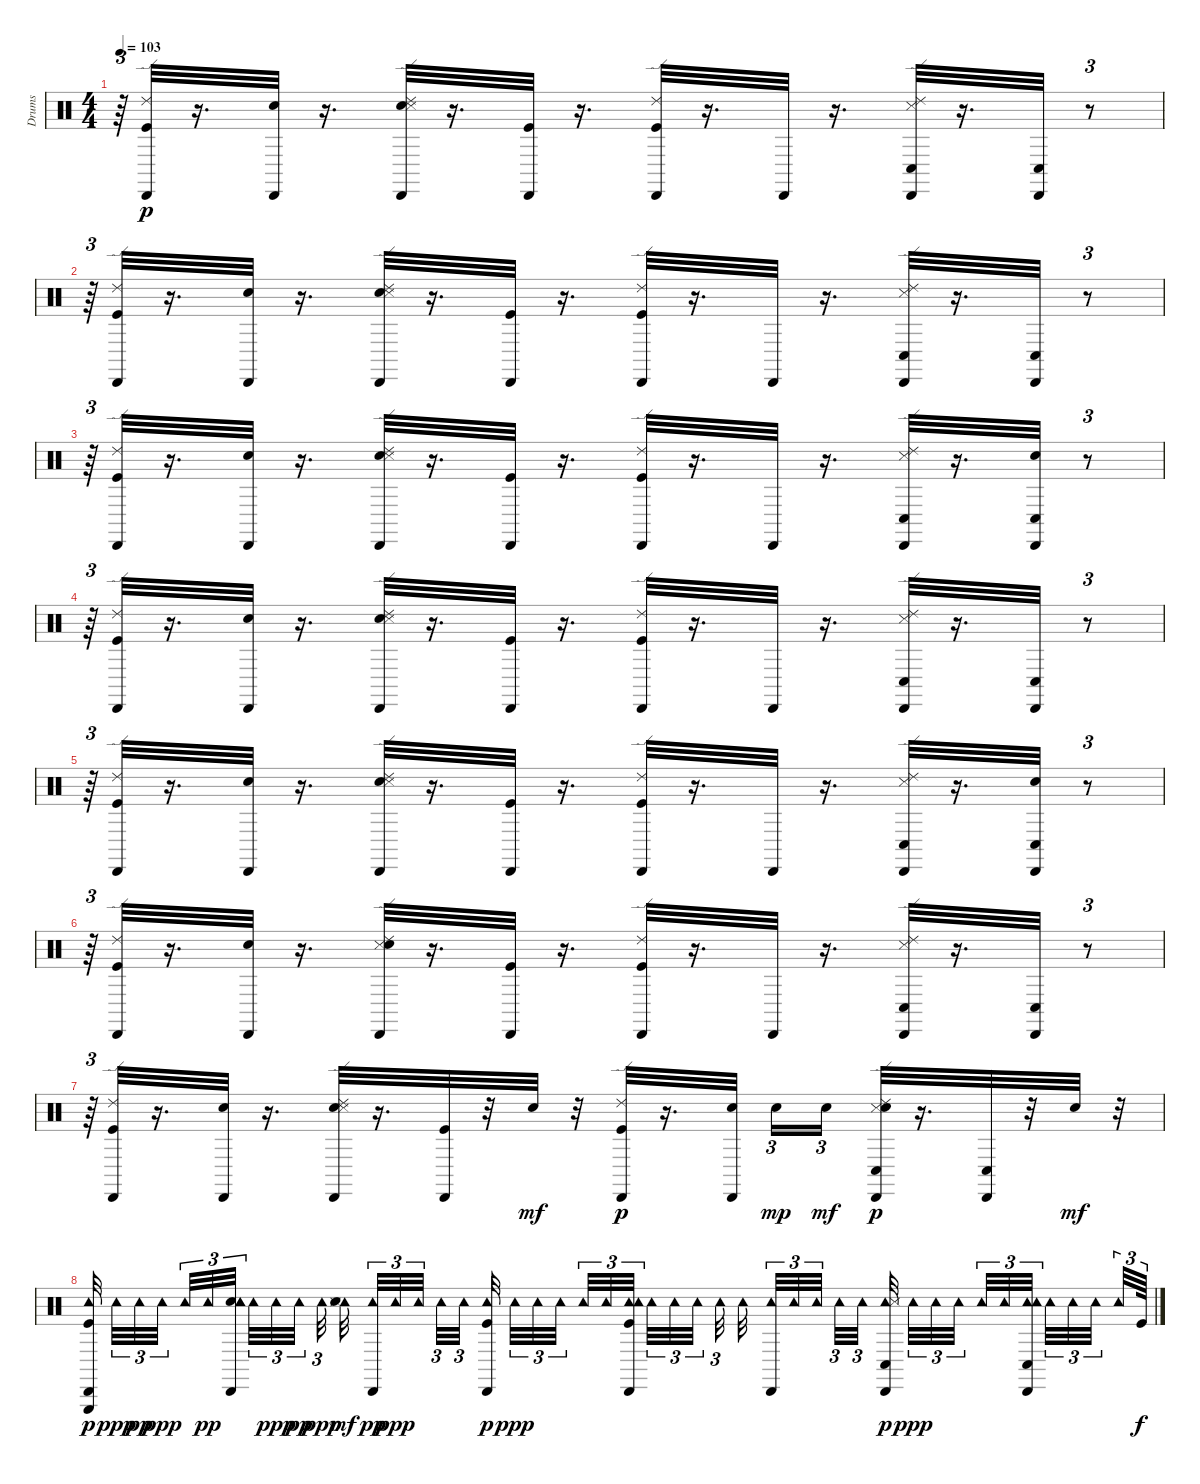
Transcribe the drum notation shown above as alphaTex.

\track ("Drums" "Drums") {instrument percussion}
\staff {score}
\articulation defaults
\ts (4 4)
\tempo 103
\clef neutral
\ks c
r.64{tu (3 2) dy p} ("Kick (hit)" "Ride (edge) 2" "Cabasa (hit)").32 r.16{d} ("Snare (hit) 2" "Cabasa (hit)").32 r.16{d} ("Snare (hit) 2" "Snare (side stick) 3" "Ride (edge) 2" "Cabasa (hit)").32 r.16{d} ("Kick (hit)" "Cabasa (hit)").32 r.16{d} ("Kick (hit)" "Ride (edge) 2" "Cabasa (hit)").32 r.16{d} "Cabasa (hit)".32 r.16{d} ("Ride (edge) 2" "Snare (side stick) 3" "Conga low (hit)" "Cabasa (hit)").32 r.16{d} ("Conga low (hit)" "Cabasa (hit)").32 r.8{tu (3 2)} |
r.64{tu (3 2)} ("Ride (edge) 2" "Kick (hit)" "Cabasa (hit)").32 r.16{d} ("Snare (hit) 2" "Cabasa (hit)").32 r.16{d} ("Snare (hit) 2" "Ride (edge) 2" "Snare (side stick) 3" "Cabasa (hit)").32 r.16{d} ("Kick (hit)" "Cabasa (hit)").32 r.16{d} ("Ride (edge) 2" "Kick (hit)" "Cabasa (hit)").32 r.16{d} "Cabasa (hit)".32 r.16{d} ("Ride (edge) 2" "Snare (side stick) 3" "Conga low (hit)" "Cabasa (hit)").32 r.16{d} ("Conga low (hit)" "Cabasa (hit)").32 r.8{tu (3 2)} |
r.64{tu (3 2)} ("Kick (hit)" "Ride (edge) 2" "Cabasa (hit)").32 r.16{d} ("Snare (hit) 2" "Cabasa (hit)").32 r.16{d} ("Ride (edge) 2" "Snare (hit) 2" "Snare (side stick) 3" "Cabasa (hit)").32 r.16{d} ("Kick (hit)" "Cabasa (hit)").32 r.16{d} ("Ride (edge) 2" "Kick (hit)" "Cabasa (hit)").32 r.16{d} "Cabasa (hit)".32 r.16{d} ("Ride (edge) 2" "Conga low (hit)" "Snare (side stick) 3" "Cabasa (hit)").32 r.16{d} ("Conga low (hit)" "Snare (hit) 2" "Cabasa (hit)").32 r.8{tu (3 2)} |
r.64{tu (3 2)} ("Kick (hit)" "Ride (edge) 2" "Cabasa (hit)").32 r.16{d} ("Snare (hit) 2" "Cabasa (hit)").32 r.16{d} ("Snare (hit) 2" "Ride (edge) 2" "Snare (side stick) 3" "Cabasa (hit)").32 r.16{d} ("Kick (hit)" "Cabasa (hit)").32 r.16{d} ("Kick (hit)" "Ride (edge) 2" "Cabasa (hit)").32 r.16{d} "Cabasa (hit)".32 r.16{d} ("Conga low (hit)" "Snare (side stick) 3" "Ride (edge) 2" "Cabasa (hit)").32 r.16{d} ("Conga low (hit)" "Cabasa (hit)").32 r.8{tu (3 2)} |
r.64{tu (3 2)} ("Ride (edge) 2" "Kick (hit)" "Cabasa (hit)").32 r.16{d} ("Snare (hit) 2" "Cabasa (hit)").32 r.16{d} ("Snare (hit) 2" "Snare (side stick) 3" "Ride (edge) 2" "Cabasa (hit)").32 r.16{d} ("Kick (hit)" "Cabasa (hit)").32 r.16{d} ("Ride (edge) 2" "Kick (hit)" "Cabasa (hit)").32 r.16{d} "Cabasa (hit)".32 r.16{d} ("Snare (side stick) 3" "Ride (edge) 2" "Conga low (hit)" "Cabasa (hit)").32 r.16{d} ("Snare (hit) 2" "Conga low (hit)" "Cabasa (hit)").32 r.8{tu (3 2)} |
r.64{tu (3 2)} ("Ride (edge) 2" "Kick (hit)" "Cabasa (hit)").32 r.16{d} ("Snare (hit) 2" "Cabasa (hit)").32 r.16{d} ("Snare (side stick) 3" "Ride (edge) 2" "Snare (hit) 2" "Cabasa (hit)").32 r.16{d} ("Kick (hit)" "Cabasa (hit)").32 r.16{d} ("Ride (edge) 2" "Kick (hit)" "Cabasa (hit)").32 r.16{d} "Cabasa (hit)".32 r.16{d} ("Conga low (hit)" "Snare (side stick) 3" "Ride (edge) 2" "Cabasa (hit)").32 r.16{d} ("Conga low (hit)" "Cabasa (hit)").32 r.8{tu (3 2)} |
r.64{tu (3 2)} ("Kick (hit)" "Ride (edge) 2" "Cabasa (hit)").32 r.16{d} ("Snare (hit) 2" "Cabasa (hit)").32 r.16{d} ("Snare (hit) 2" "Snare (side stick) 3" "Ride (edge) 2" "Cabasa (hit)").32 r.16{d} ("Kick (hit)" "Cabasa (hit)").32 r.32 "Snare (hit) 2".32{dy mf} r.32 ("Ride (edge) 2" "Kick (hit)" "Cabasa (hit)").32{dy p} r.16{d} ("Snare (hit) 2" "Cabasa (hit)").32 "Snare (hit) 2".16{tu (3 2) dy mp} "Snare (hit) 2".16{tu (3 2) dy mf} ("Ride (edge) 2" "Conga low (hit)" "Snare (side stick) 3" "Snare (hit) 2" "Cabasa (hit)").32{dy p} r.16{d} ("Conga low (hit)" "Cabasa (hit)").32 r.32 "Snare (hit) 2".32{dy mf} r.32 |
("Kick (hit)" "Tambourine (hit)" "Triangle (hit)" "Cabasa (hit)").32{dy p} "Tambourine (hit)".32{tu (3 2) dy ppp} "Tambourine (hit)".32{tu (3 2) dy pp} "Tambourine (hit)".32{tu (3 2) dy ppp} "Tambourine (hit)".32{tu (3 2)} "Tambourine (hit)".32{tu (3 2) dy pp} ("Snare (hit) 2" "Tambourine (hit)" "Cabasa (hit)" "Tambourine (hit)").32{tu (3 2)} "Tambourine (hit)".32{tu (3 2)} "Tambourine (hit)".32{tu (3 2) dy ppp} "Tambourine (hit)".32{tu (3 2) dy pp} "Tambourine (hit)".32{tu (3 2) dy ppp} ("Tambourine (hit)" "Snare (side stick) 3" "Snare (hit) 2").32{dy mf} ("Cabasa (hit)" "Tambourine (hit)").32{tu (3 2) dy pp} "Tambourine (hit)".32{tu (3 2) dy ppp} "Tambourine (hit)".32{tu (3 2)} "Tambourine (hit)".32{tu (3 2)} "Tambourine (hit)".32{tu (3 2)} ("Tambourine (hit)" "Kick (hit)" "Cabasa (hit)").32{dy p} "Tambourine (hit)".32{tu (3 2) dy ppp} "Tambourine (hit)".32{tu (3 2)} "Tambourine (hit)".32{tu (3 2)} "Tambourine (hit)".32{tu (3 2)} "Tambourine (hit)".32{tu (3 2)} ("Kick (hit)" "Tambourine (hit)" "Cabasa (hit)" "Tambourine (hit)").32{tu (3 2)} "Tambourine (hit)".32{tu (3 2)} "Tambourine (hit)".32{tu (3 2)} "Tambourine (hit)".32{tu (3 2)} "Tambourine (hit)".32{tu (3 2)} "Tambourine (hit)".32 ("Cabasa (hit)" "Tambourine (hit)").32{tu (3 2)} "Tambourine (hit)".32{tu (3 2)} "Tambourine (hit)".32{tu (3 2)} "Tambourine (hit)".32{tu (3 2)} "Tambourine (hit)".32{tu (3 2)} ("Tambourine (hit)" "Conga low (hit)" "Snare (side stick) 3" "Cabasa (hit)").32{dy p} "Tambourine (hit)".32{tu (3 2) dy ppp} "Tambourine (hit)".32{tu (3 2)} "Tambourine (hit)".32{tu (3 2)} "Tambourine (hit)".32{tu (3 2)} "Tambourine (hit)".32{tu (3 2)} ("Tambourine (hit)" "Conga low (hit)" "Cabasa (hit)" "Tambourine (hit)").32{tu (3 2)} "Tambourine (hit)".32{tu (3 2)} "Tambourine (hit)".32{tu (3 2)} "Tambourine (hit)".32{tu (3 2)} "Tambourine (hit)".32{tu (3 2)} "Kick (hit)".64{tu (3 2) dy f}
